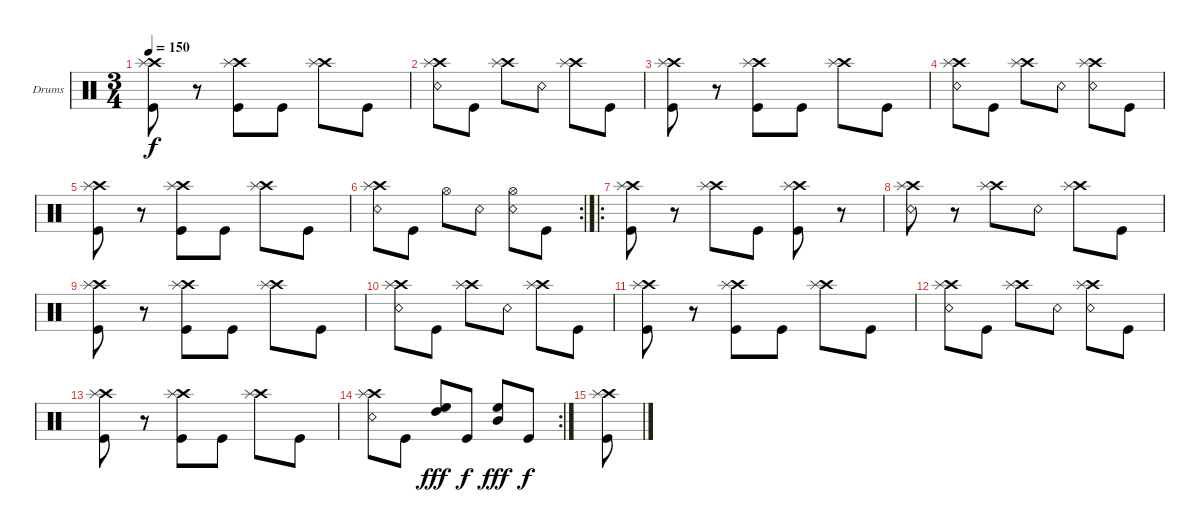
\defaultSystemsLayout 4
\bracketExtendMode groupsimilarinstruments
\firstSystemTrackNameOrientation horizontal
\otherSystemsTrackNameOrientation horizontal
\track ("Scott" "Drums") {instrument percussion}
\staff {score}
\articulation defaults
\ts (3 4)
\tempo 150
\clef neutral
\scale
0.333333
\ks c
("Kick (hit)" "Crash high (hit)" "Splash (hit)").8{dy f} r.8 ("Crash high (hit)" "Splash (hit)" "Kick (hit)").8 "Kick (hit)".8 ("Crash high (hit)" "Splash (hit)").8 "Kick (hit)".8 |
\scale
0.333333 ("Snare (rim shot)" "Crash high (hit)" "Splash (hit)").8 "Kick (hit)".8 ("Crash high (hit)" "Splash (hit)").8 "Snare (rim shot)".8 ("Crash high (hit)" "Splash (hit)").8 "Kick (hit)".8 |
\scale
0.333333 ("Kick (hit)" "Crash high (hit)" "Splash (hit)").8 r.8 ("Kick (hit)" "Crash high (hit)" "Splash (hit)").8 "Kick (hit)".8 ("Crash high (hit)" "Splash (hit)").8 "Kick (hit)".8 |
\scale
0.333333 ("Snare (rim shot)" "Crash high (hit)" "Splash (hit)").8 "Kick (hit)".8 ("Crash high (hit)" "Splash (hit)").8 "Snare (rim shot)".8 ("Crash high (hit)" "Splash (hit)" "Snare (rim shot)").8 "Kick (hit)".8 |
\scale
0.333333 ("Kick (hit)" "Crash high (hit)" "Splash (hit)").8 r.8 ("Kick (hit)" "Crash high (hit)" "Splash (hit)").8 "Kick (hit)".8 ("Crash high (hit)" "Splash (hit)").8 "Kick (hit)".8 |
\rc 2
\scale
0.333333 ("Snare (rim shot)" "Crash high (hit)" "Splash (hit)").8 "Kick (hit)".8 "Hi-Hat (open)".8 "Snare (rim shot)".8 ("Snare (rim shot)" "Hi-Hat (open)").8 "Kick (hit)".8 |
\ro
\scale
0.365079 ("Kick (hit)" "Crash high (hit)" "Splash (hit)").8 r.8 ("Crash high (hit)" "Splash (hit)").8 "Kick (hit)".8 ("Crash high (hit)" "Splash (hit)" "Kick (hit)").8 r.8 |
\scale
0.301587 ("Snare (rim shot)" "Crash high (hit)" "Splash (hit)").8 r.8 ("Crash high (hit)" "Splash (hit)").8 "Snare (rim shot)".8 ("Crash high (hit)" "Splash (hit)").8 "Kick (hit)".8 |
\scale
0.333333 ("Kick (hit)" "Crash high (hit)" "Splash (hit)").8 r.8 ("Crash high (hit)" "Splash (hit)" "Kick (hit)").8 "Kick (hit)".8 ("Crash high (hit)" "Splash (hit)").8 "Kick (hit)".8 |
\scale
0.333333 ("Snare (rim shot)" "Crash high (hit)" "Splash (hit)").8 "Kick (hit)".8 ("Crash high (hit)" "Splash (hit)").8 "Snare (rim shot)".8 ("Crash high (hit)" "Splash (hit)").8 "Kick (hit)".8 |
\scale
0.333333 ("Kick (hit)" "Crash high (hit)" "Splash (hit)").8 r.8 ("Kick (hit)" "Crash high (hit)" "Splash (hit)").8 "Kick (hit)".8 ("Crash high (hit)" "Splash (hit)").8 "Kick (hit)".8 |
\scale
0.322034 ("Snare (rim shot)" "Crash high (hit)" "Splash (hit)").8 "Kick (hit)".8 ("Crash high (hit)" "Splash (hit)").8 "Snare (rim shot)".8 ("Crash high (hit)" "Splash (hit)" "Snare (rim shot)").8 "Kick (hit)".8 |
\scale
0.322034 ("Kick (hit)" "Crash high (hit)" "Splash (hit)").8 r.8 ("Kick (hit)" "Crash high (hit)" "Splash (hit)").8 "Kick (hit)".8 ("Crash high (hit)" "Splash (hit)").8 "Kick (hit)".8 |
\rc 2
\scale
0.355932 ("Snare (rim shot)" "Crash high (hit)" "Splash (hit)").8 "Kick (hit)".8 ("High Tom (hit)" "High Floor Tom (hit)").8{dy fff} "Kick (hit)".8{dy f} ("High Floor Tom (hit)" "Mid Tom (hit)").8{dy fff} "Kick (hit)".8{dy f} |
\scale
0.333333 ("Kick (hit)" "Crash high (hit)" "Splash (hit)").8 |
\scale
0.333333
